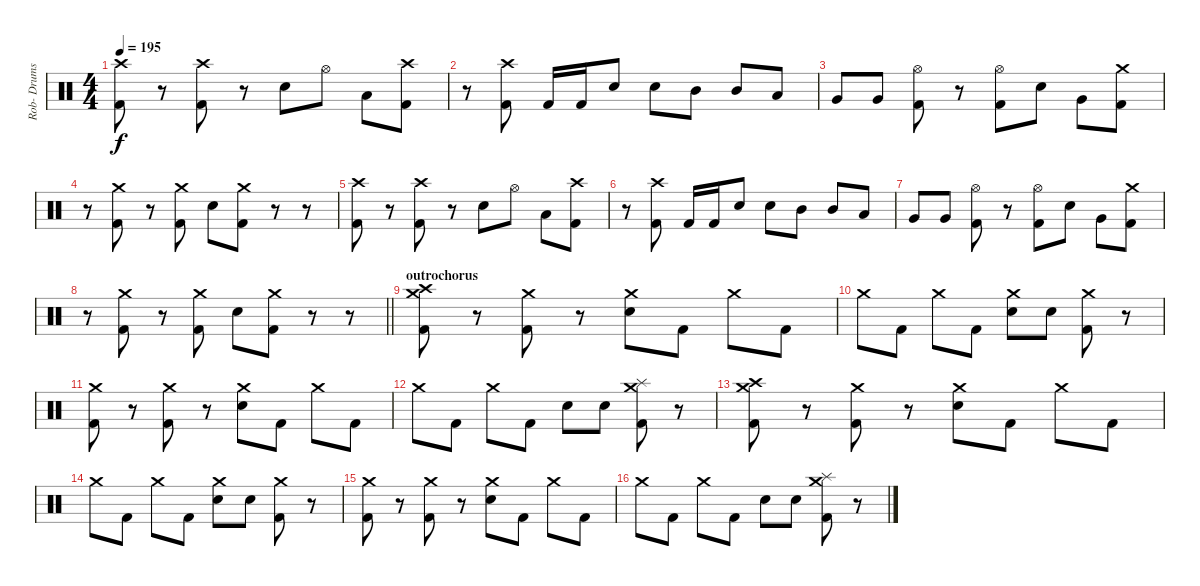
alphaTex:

\track ("Rob- Drums" "Rob- Drums") {instrument percussion}
\staff {score}
\articulation defaults
\ts (4 4)
\tempo 195
\clef neutral
\ks c
("Crash high (hit)" "Kick (hit) 2").8{dy f} r.8 ("Crash high (hit)" "Kick (hit) 2").8 r.8 "Electric Snare (hit)".8 "Hi-Hat (open)".8 "Low Tom (hit)".8 ("Crash high (hit)" "Kick (hit) 2").8 |
r.8 ("Crash high (hit)" "Kick (hit) 2").8 "Kick (hit) 2".16 "Kick (hit) 2".16 "Electric Snare (hit)".8 "Electric Snare (hit)".8 "Mid Tom (hit)".8 "Mid Tom (hit)".8 "Low Tom (hit)".8 |
"Very Low Tom (hit)".8 "Very Low Tom (hit)".8 ("Hi-Hat (open)" "Kick (hit) 2").8 r.8 ("Hi-Hat (open)" "Kick (hit) 2").8 "Electric Snare (hit)".8 "Very Low Tom (hit)".8 ("Crash medium (hit)" "Kick (hit) 2").8 |
r.8 ("Crash medium (hit)" "Kick (hit) 2").8 r.8 ("Crash medium (hit)" "Kick (hit) 2").8 "Electric Snare (hit)".8 ("Crash medium (hit)" "Kick (hit) 2").8 r.8 r.8 |
("Crash high (hit)" "Kick (hit) 2").8 r.8 ("Crash high (hit)" "Kick (hit) 2").8 r.8 "Electric Snare (hit)".8 "Hi-Hat (open)".8 "Low Tom (hit)".8 ("Crash high (hit)" "Kick (hit) 2").8 |
r.8 ("Crash high (hit)" "Kick (hit) 2").8 "Kick (hit) 2".16 "Kick (hit) 2".16 "Electric Snare (hit)".8 "Electric Snare (hit)".8 "Mid Tom (hit)".8 "Mid Tom (hit)".8 "Low Tom (hit)".8 |
"Very Low Tom (hit)".8 "Very Low Tom (hit)".8 ("Hi-Hat (open)" "Kick (hit) 2").8 r.8 ("Hi-Hat (open)" "Kick (hit) 2").8 "Electric Snare (hit)".8 "Very Low Tom (hit)".8 ("Crash medium (hit)" "Kick (hit) 2").8 |
\barLineRight lightlight
r.8 ("Crash medium (hit)" "Kick (hit) 2").8 r.8 ("Crash medium (hit)" "Kick (hit) 2").8 "Electric Snare (hit)".8 ("Crash medium (hit)" "Kick (hit) 2").8 r.8 r.8 |
\section ("" "outrochorus")
("Crash high (hit)" "Crash medium (hit)" "Kick (hit) 2").8 r.8 ("Crash medium (hit)" "Kick (hit) 2").8 r.8 ("Crash medium (hit)" "Electric Snare (hit)").8 "Kick (hit) 2".8 "Crash medium (hit)".8 "Kick (hit) 2".8 |
"Crash medium (hit)".8 "Kick (hit) 2".8 "Crash medium (hit)".8 "Kick (hit) 2".8 ("Crash medium (hit)" "Electric Snare (hit)").8 "Electric Snare (hit)".8 ("Crash medium (hit)" "Kick (hit) 2").8 r.8 |
("Crash medium (hit)" "Kick (hit) 2").8 r.8 ("Crash medium (hit)" "Kick (hit) 2").8 r.8 ("Crash medium (hit)" "Electric Snare (hit)").8 "Kick (hit) 2".8 "Crash medium (hit)".8 "Kick (hit) 2".8 |
"Crash medium (hit)".8 "Kick (hit) 2".8 "Crash medium (hit)".8 "Kick (hit) 2".8 "Electric Snare (hit)".8 "Electric Snare (hit)".8 ("Crash medium (hit)" "Splash (hit)" "Kick (hit) 2").8 r.8 |
("Crash high (hit)" "Crash medium (hit)" "Kick (hit) 2").8 r.8 ("Crash medium (hit)" "Kick (hit) 2").8 r.8 ("Crash medium (hit)" "Electric Snare (hit)").8 "Kick (hit) 2".8 "Crash medium (hit)".8 "Kick (hit) 2".8 |
"Crash medium (hit)".8 "Kick (hit) 2".8 "Crash medium (hit)".8 "Kick (hit) 2".8 ("Crash medium (hit)" "Electric Snare (hit)").8 "Electric Snare (hit)".8 ("Crash medium (hit)" "Kick (hit) 2").8 r.8 |
("Crash medium (hit)" "Kick (hit) 2").8 r.8 ("Crash medium (hit)" "Kick (hit) 2").8 r.8 ("Crash medium (hit)" "Electric Snare (hit)").8 "Kick (hit) 2".8 "Crash medium (hit)".8 "Kick (hit) 2".8 |
"Crash medium (hit)".8 "Kick (hit) 2".8 "Crash medium (hit)".8 "Kick (hit) 2".8 "Electric Snare (hit)".8 "Electric Snare (hit)".8 ("Crash medium (hit)" "Splash (hit)" "Kick (hit) 2").8 r.8
